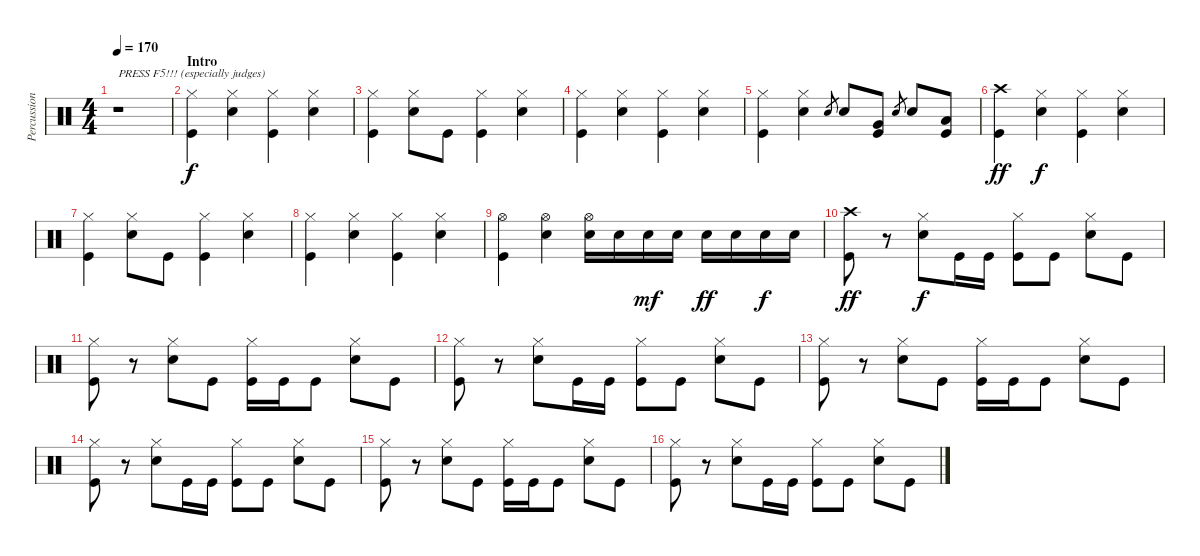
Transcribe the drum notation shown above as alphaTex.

\track ("Percussion" "Percussion") {instrument percussion}
\staff {score}
\articulation defaults
\ts (4 4)
\tempo 170
\clef neutral
\ks c
r.1{txt "PRESS F5!!! (especially judges)" dy f} |
\section ("" "Intro")
("Hi-Hat (closed)" "Kick (hit)").4 ("Hi-Hat (closed)" "Snare (hit) 2").4 ("Hi-Hat (closed)" "Kick (hit)").4 ("Hi-Hat (closed)" "Snare (hit) 2").4 |
("Hi-Hat (closed)" "Kick (hit)").4 ("Hi-Hat (closed)" "Snare (hit) 2").8 "Kick (hit)".8 ("Hi-Hat (closed)" "Kick (hit)").4 ("Hi-Hat (closed)" "Snare (hit) 2").4 |
("Hi-Hat (closed)" "Kick (hit)").4 ("Hi-Hat (closed)" "Snare (hit) 2").4 ("Hi-Hat (closed)" "Kick (hit)").4 ("Hi-Hat (closed)" "Snare (hit) 2").4 |
("Hi-Hat (closed)" "Kick (hit)").4 ("Hi-Hat (closed)" "Snare (hit) 2").4 "Snare (hit) 2".8{gr} "Snare (hit) 2".8 ("Very Low Tom (hit)" "Kick (hit)").8 "Snare (hit) 2".8{gr} "Snare (hit) 2".8 ("Low Floor Tom (hit)" "Kick (hit)").8 |
("Crash high (hit)" "Kick (hit)").4{dy ff} ("Hi-Hat (closed)" "Snare (hit) 2").4{dy f} ("Hi-Hat (closed)" "Kick (hit)").4 ("Hi-Hat (closed)" "Snare (hit) 2").4 |
("Hi-Hat (closed)" "Kick (hit)").4 ("Hi-Hat (closed)" "Snare (hit) 2").8 "Kick (hit)".8 ("Hi-Hat (closed)" "Kick (hit)").4 ("Hi-Hat (closed)" "Snare (hit) 2").4 |
("Hi-Hat (closed)" "Kick (hit)").4 ("Hi-Hat (closed)" "Snare (hit) 2").4 ("Hi-Hat (closed)" "Kick (hit)").4 ("Hi-Hat (closed)" "Snare (hit) 2").4 |
("Hi-Hat (open)" "Kick (hit)").4 ("Hi-Hat (open)" "Snare (hit) 2").4 ("Hi-Hat (open)" "Snare (hit) 2").16 "Snare (hit) 2".16 "Snare (hit) 2".16{dy mf} "Snare (hit) 2".16 "Snare (hit) 2".16{dy ff} "Snare (hit) 2".16 "Snare (hit) 2".16{dy f} "Snare (hit) 2".16 |
("Crash high (hit)" "Kick (hit)").8{dy ff} r.8 ("Hi-Hat (closed)" "Snare (hit) 2").8{dy f} "Kick (hit)".16 "Kick (hit)".16 ("Hi-Hat (closed)" "Kick (hit)").8 "Kick (hit)".8 ("Hi-Hat (closed)" "Snare (hit) 2").8 "Kick (hit)".8 |
("Hi-Hat (closed)" "Kick (hit)").8 r.8 ("Hi-Hat (closed)" "Snare (hit) 2").8 "Kick (hit)".8 ("Hi-Hat (closed)" "Kick (hit)").16 "Kick (hit)".16 "Kick (hit)".8 ("Hi-Hat (closed)" "Snare (hit) 2").8 "Kick (hit)".8 |
("Hi-Hat (closed)" "Kick (hit)").8 r.8 ("Hi-Hat (closed)" "Snare (hit) 2").8 "Kick (hit)".16 "Kick (hit)".16 ("Hi-Hat (closed)" "Kick (hit)").8 "Kick (hit)".8 ("Hi-Hat (closed)" "Snare (hit) 2").8 "Kick (hit)".8 |
("Hi-Hat (closed)" "Kick (hit)").8 r.8 ("Hi-Hat (closed)" "Snare (hit) 2").8 "Kick (hit)".8 ("Hi-Hat (closed)" "Kick (hit)").16 "Kick (hit)".16 "Kick (hit)".8 ("Hi-Hat (closed)" "Snare (hit) 2").8 "Kick (hit)".8 |
("Hi-Hat (closed)" "Kick (hit)").8 r.8 ("Hi-Hat (closed)" "Snare (hit) 2").8 "Kick (hit)".16 "Kick (hit)".16 ("Hi-Hat (closed)" "Kick (hit)").8 "Kick (hit)".8 ("Hi-Hat (closed)" "Snare (hit) 2").8 "Kick (hit)".8 |
("Hi-Hat (closed)" "Kick (hit)").8 r.8 ("Hi-Hat (closed)" "Snare (hit) 2").8 "Kick (hit)".8 ("Hi-Hat (closed)" "Kick (hit)").16 "Kick (hit)".16 "Kick (hit)".8 ("Hi-Hat (closed)" "Snare (hit) 2").8 "Kick (hit)".8 |
("Hi-Hat (closed)" "Kick (hit)").8 r.8 ("Hi-Hat (closed)" "Snare (hit) 2").8 "Kick (hit)".16 "Kick (hit)".16 ("Hi-Hat (closed)" "Kick (hit)").8 "Kick (hit)".8 ("Hi-Hat (closed)" "Snare (hit) 2").8 "Kick (hit)".8
